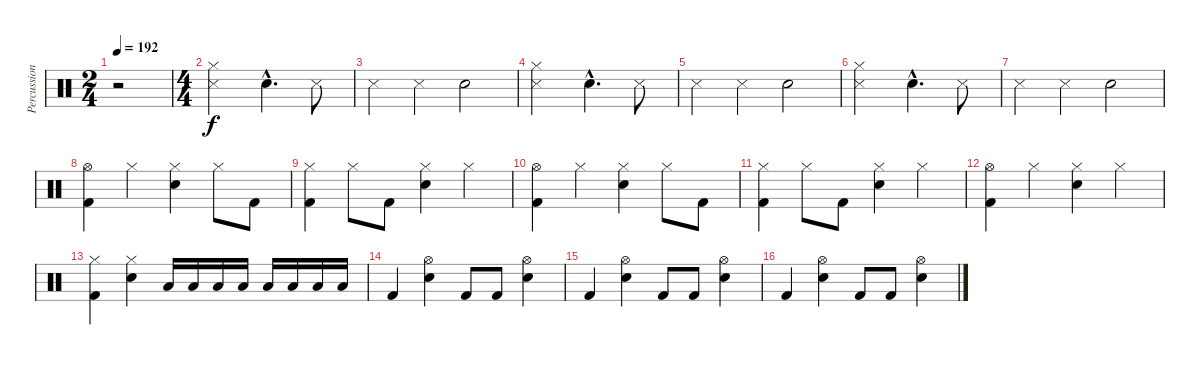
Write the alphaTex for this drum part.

\track ("Percussions" "Percussion") {instrument percussion}
\staff {score}
\articulation defaults
\ts (2 4)
\tempo 192
\clef neutral
\ks c
r.2{dy f volume 9} |
\ts (4 4)
("Snare (side stick) 3" "Hi-Hat (closed)").2 "Electric Snare (hit)"{hac}.4{d} "Snare (side stick) 3".8 |
"Snare (side stick) 3".4 "Snare (side stick) 3".4 "Electric Snare (hit)".2 |
("Snare (side stick) 3" "Hi-Hat (closed)").2 "Electric Snare (hit)"{hac}.4{d} "Snare (side stick) 3".8 |
"Snare (side stick) 3".4 "Snare (side stick) 3".4 "Electric Snare (hit)".2 |
("Snare (side stick) 3" "Hi-Hat (closed)").2 "Electric Snare (hit)"{hac}.4{d} "Snare (side stick) 3".8 |
"Snare (side stick) 3".4 "Snare (side stick) 3".4 "Electric Snare (hit)".2 |
("Kick (hit) 2" "Hi-Hat (open)").4{volume 13} "Hi-Hat (closed)".4 ("Electric Snare (hit)" "Hi-Hat (closed)").4 "Hi-Hat (closed)".8 "Kick (hit) 2".8 |
("Kick (hit) 2" "Hi-Hat (closed)").4 "Hi-Hat (closed)".8 "Kick (hit) 2".8 ("Electric Snare (hit)" "Hi-Hat (closed)").4 "Hi-Hat (closed)".4 |
("Kick (hit) 2" "Hi-Hat (open)").4 "Hi-Hat (closed)".4 ("Electric Snare (hit)" "Hi-Hat (closed)").4 "Hi-Hat (closed)".8 "Kick (hit) 2".8 |
("Kick (hit) 2" "Hi-Hat (closed)").4 "Hi-Hat (closed)".8 "Kick (hit) 2".8 ("Electric Snare (hit)" "Hi-Hat (closed)").4 "Hi-Hat (closed)".4 |
("Kick (hit) 2" "Hi-Hat (open)").4 "Hi-Hat (closed)".4 ("Electric Snare (hit)" "Hi-Hat (closed)").4 "Hi-Hat (closed)".4 |
("Kick (hit) 2" "Hi-Hat (closed)").4 ("Electric Snare (hit)" "Hi-Hat (closed)").4 "Low Tom (hit)".16 "Low Tom (hit)".16 "Low Tom (hit)".16 "Low Tom (hit)".16 "Low Tom (hit)".16 "Low Tom (hit)".16 "Low Tom (hit)".16 "Low Tom (hit)".16 |
"Kick (hit) 2".4 ("Electric Snare (hit)" "Hi-Hat (open)").4 "Kick (hit) 2".8 "Kick (hit) 2".8 ("Electric Snare (hit)" "Hi-Hat (open)").4 |
"Kick (hit) 2".4 ("Electric Snare (hit)" "Hi-Hat (open)").4 "Kick (hit) 2".8 "Kick (hit) 2".8 ("Electric Snare (hit)" "Hi-Hat (open)").4 |
"Kick (hit) 2".4 ("Electric Snare (hit)" "Hi-Hat (open)").4 "Kick (hit) 2".8 "Kick (hit) 2".8 ("Electric Snare (hit)" "Hi-Hat (open)").4
